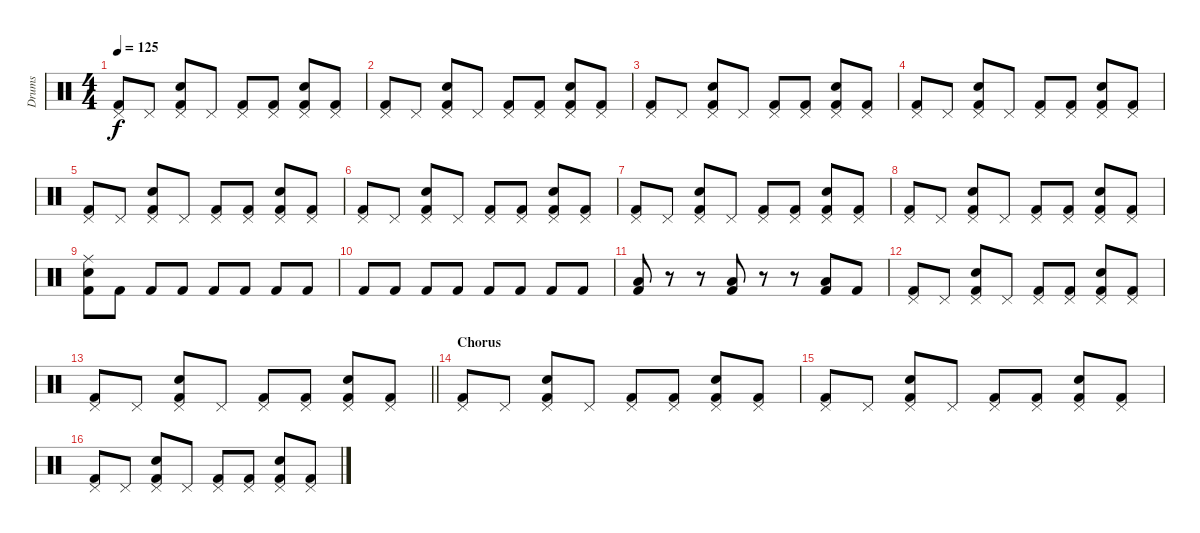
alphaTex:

\track ("Drums" "Drums") {instrument percussion}
\staff {score}
\articulation defaults
\ts (4 4)
\tempo 125
\clef neutral
\ks c
("Pedal Hi-Hat (hit)" "Kick (hit) 2").8{dy f} "Pedal Hi-Hat (hit)".8 ("Pedal Hi-Hat (hit)" "Snare (hit) 2" "Kick (hit) 2").8 "Pedal Hi-Hat (hit)".8 ("Pedal Hi-Hat (hit)" "Kick (hit) 2").8 ("Pedal Hi-Hat (hit)" "Kick (hit) 2").8 ("Pedal Hi-Hat (hit)" "Snare (hit) 2" "Kick (hit) 2").8 ("Pedal Hi-Hat (hit)" "Kick (hit) 2").8 |
("Pedal Hi-Hat (hit)" "Kick (hit) 2").8 "Pedal Hi-Hat (hit)".8 ("Pedal Hi-Hat (hit)" "Snare (hit) 2" "Kick (hit) 2").8 "Pedal Hi-Hat (hit)".8 ("Pedal Hi-Hat (hit)" "Kick (hit) 2").8 ("Pedal Hi-Hat (hit)" "Kick (hit) 2").8 ("Pedal Hi-Hat (hit)" "Snare (hit) 2" "Kick (hit) 2").8 ("Pedal Hi-Hat (hit)" "Kick (hit) 2").8 |
("Pedal Hi-Hat (hit)" "Kick (hit) 2").8 "Pedal Hi-Hat (hit)".8 ("Pedal Hi-Hat (hit)" "Snare (hit) 2" "Kick (hit) 2").8 "Pedal Hi-Hat (hit)".8 ("Pedal Hi-Hat (hit)" "Kick (hit) 2").8 ("Pedal Hi-Hat (hit)" "Kick (hit) 2").8 ("Pedal Hi-Hat (hit)" "Snare (hit) 2" "Kick (hit) 2").8 ("Pedal Hi-Hat (hit)" "Kick (hit) 2").8 |
("Pedal Hi-Hat (hit)" "Kick (hit) 2").8 "Pedal Hi-Hat (hit)".8 ("Pedal Hi-Hat (hit)" "Snare (hit) 2" "Kick (hit) 2").8 "Pedal Hi-Hat (hit)".8 ("Pedal Hi-Hat (hit)" "Kick (hit) 2").8 ("Pedal Hi-Hat (hit)" "Kick (hit) 2").8 ("Pedal Hi-Hat (hit)" "Snare (hit) 2" "Kick (hit) 2").8 ("Pedal Hi-Hat (hit)" "Kick (hit) 2").8 |
("Pedal Hi-Hat (hit)" "Kick (hit) 2").8 "Pedal Hi-Hat (hit)".8 ("Pedal Hi-Hat (hit)" "Snare (hit) 2" "Kick (hit) 2").8 "Pedal Hi-Hat (hit)".8 ("Pedal Hi-Hat (hit)" "Kick (hit) 2").8 ("Pedal Hi-Hat (hit)" "Kick (hit) 2").8 ("Pedal Hi-Hat (hit)" "Snare (hit) 2" "Kick (hit) 2").8 ("Pedal Hi-Hat (hit)" "Kick (hit) 2").8 |
("Pedal Hi-Hat (hit)" "Kick (hit) 2").8 "Pedal Hi-Hat (hit)".8 ("Pedal Hi-Hat (hit)" "Snare (hit) 2" "Kick (hit) 2").8 "Pedal Hi-Hat (hit)".8 ("Pedal Hi-Hat (hit)" "Kick (hit) 2").8 ("Pedal Hi-Hat (hit)" "Kick (hit) 2").8 ("Pedal Hi-Hat (hit)" "Snare (hit) 2" "Kick (hit) 2").8 ("Pedal Hi-Hat (hit)" "Kick (hit) 2").8 |
("Pedal Hi-Hat (hit)" "Kick (hit) 2").8 "Pedal Hi-Hat (hit)".8 ("Pedal Hi-Hat (hit)" "Snare (hit) 2" "Kick (hit) 2").8 "Pedal Hi-Hat (hit)".8 ("Pedal Hi-Hat (hit)" "Kick (hit) 2").8 ("Pedal Hi-Hat (hit)" "Kick (hit) 2").8 ("Pedal Hi-Hat (hit)" "Snare (hit) 2" "Kick (hit) 2").8 ("Pedal Hi-Hat (hit)" "Kick (hit) 2").8 |
("Pedal Hi-Hat (hit)" "Kick (hit) 2").8 "Pedal Hi-Hat (hit)".8 ("Pedal Hi-Hat (hit)" "Snare (hit) 2" "Kick (hit) 2").8 "Pedal Hi-Hat (hit)".8 ("Pedal Hi-Hat (hit)" "Kick (hit) 2").8 ("Pedal Hi-Hat (hit)" "Kick (hit) 2").8 ("Pedal Hi-Hat (hit)" "Snare (hit) 2" "Kick (hit) 2").8 ("Pedal Hi-Hat (hit)" "Kick (hit) 2").8 |
("Ride (middle)" "Snare (hit) 2" "Kick (hit) 2").8 "Kick (hit) 2".8 "Kick (hit) 2".8 "Kick (hit) 2".8 "Kick (hit) 2".8 "Kick (hit) 2".8 "Kick (hit) 2".8 "Kick (hit) 2".8 |
"Kick (hit) 2".8 "Kick (hit) 2".8 "Kick (hit) 2".8 "Kick (hit) 2".8 "Kick (hit) 2".8 "Kick (hit) 2".8 "Kick (hit) 2".8 "Kick (hit) 2".8 |
("Low Tom (hit)" "Kick (hit) 2").8 r.8 r.8 ("Low Tom (hit)" "Kick (hit) 2").8 r.8 r.8 ("Low Tom (hit)" "Kick (hit) 2").8 "Kick (hit) 2".8 |
("Pedal Hi-Hat (hit)" "Kick (hit) 2").8 "Pedal Hi-Hat (hit)".8 ("Pedal Hi-Hat (hit)" "Snare (hit) 2" "Kick (hit) 2").8 "Pedal Hi-Hat (hit)".8 ("Pedal Hi-Hat (hit)" "Kick (hit) 2").8 ("Pedal Hi-Hat (hit)" "Kick (hit) 2").8 ("Pedal Hi-Hat (hit)" "Snare (hit) 2" "Kick (hit) 2").8 ("Pedal Hi-Hat (hit)" "Kick (hit) 2").8 |
\barLineRight lightlight
("Pedal Hi-Hat (hit)" "Kick (hit) 2").8 "Pedal Hi-Hat (hit)".8 ("Pedal Hi-Hat (hit)" "Snare (hit) 2" "Kick (hit) 2").8 "Pedal Hi-Hat (hit)".8 ("Pedal Hi-Hat (hit)" "Kick (hit) 2").8 ("Pedal Hi-Hat (hit)" "Kick (hit) 2").8 ("Pedal Hi-Hat (hit)" "Snare (hit) 2" "Kick (hit) 2").8 ("Pedal Hi-Hat (hit)" "Kick (hit) 2").8 |
\section ("" "Chorus")
("Pedal Hi-Hat (hit)" "Kick (hit) 2").8 "Pedal Hi-Hat (hit)".8 ("Pedal Hi-Hat (hit)" "Snare (hit) 2" "Kick (hit) 2").8 "Pedal Hi-Hat (hit)".8 ("Pedal Hi-Hat (hit)" "Kick (hit) 2").8 ("Pedal Hi-Hat (hit)" "Kick (hit) 2").8 ("Pedal Hi-Hat (hit)" "Snare (hit) 2" "Kick (hit) 2").8 ("Pedal Hi-Hat (hit)" "Kick (hit) 2").8 |
("Pedal Hi-Hat (hit)" "Kick (hit) 2").8 "Pedal Hi-Hat (hit)".8 ("Pedal Hi-Hat (hit)" "Snare (hit) 2" "Kick (hit) 2").8 "Pedal Hi-Hat (hit)".8 ("Pedal Hi-Hat (hit)" "Kick (hit) 2").8 ("Pedal Hi-Hat (hit)" "Kick (hit) 2").8 ("Pedal Hi-Hat (hit)" "Snare (hit) 2" "Kick (hit) 2").8 ("Pedal Hi-Hat (hit)" "Kick (hit) 2").8 |
("Pedal Hi-Hat (hit)" "Kick (hit) 2").8 "Pedal Hi-Hat (hit)".8 ("Pedal Hi-Hat (hit)" "Snare (hit) 2" "Kick (hit) 2").8 "Pedal Hi-Hat (hit)".8 ("Pedal Hi-Hat (hit)" "Kick (hit) 2").8 ("Pedal Hi-Hat (hit)" "Kick (hit) 2").8 ("Pedal Hi-Hat (hit)" "Snare (hit) 2" "Kick (hit) 2").8 ("Pedal Hi-Hat (hit)" "Kick (hit) 2").8
